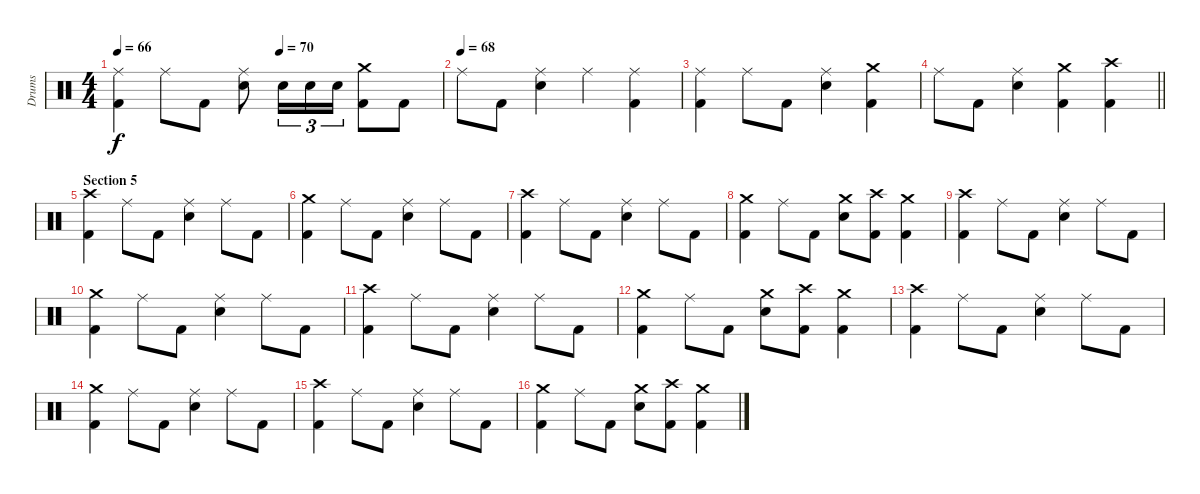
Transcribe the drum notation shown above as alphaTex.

\track ("Drums" "Drums") {instrument percussion}
\staff {score}
\articulation defaults
\ts (4 4)
\tempo 66
\tempo (70 0.5)
\clef neutral
\ks c
("Ride (middle)" "Kick (hit) 2").4{dy f} "Ride (middle)".8 "Kick (hit) 2".8 ("Ride (middle)" "Electric Snare (hit)").8 "Electric Snare (hit)".16{tu (3 2)} "Electric Snare (hit)".16{tu (3 2)} "Electric Snare (hit)".16{tu (3 2)} ("Crash medium (hit)" "Kick (hit) 2").8 "Kick (hit) 2".8 |
\tempo (68)
"Ride (middle)".8 "Kick (hit) 2".8 ("Ride (middle)" "Electric Snare (hit)").4 "Ride (middle)".4 ("Ride (middle)" "Kick (hit) 2").4 |
("Ride (middle)" "Kick (hit) 2").4 "Ride (middle)".8 "Kick (hit) 2".8 ("Ride (middle)" "Electric Snare (hit)").4 ("Crash medium (hit)" "Kick (hit) 2").4 |
\barLineRight lightlight "Ride (middle)".8 "Kick (hit) 2".8
("Ride (middle)" "Electric Snare (hit)").4 ("Crash medium (hit)" "Kick (hit) 2").4 ("Crash high (hit)" "Kick (hit) 2").4 |
\section ("" "Section 5")
("Crash high (hit)" "Kick (hit) 2").4 "Ride (middle)".8 "Kick (hit) 2".8 ("Ride (middle)" "Electric Snare (hit)").4 "Ride (middle)".8 "Kick (hit) 2".8 |
("Crash medium (hit)" "Kick (hit) 2").4 "Ride (middle)".8 "Kick (hit) 2".8 ("Ride (middle)" "Electric Snare (hit)").4 "Ride (middle)".8 "Kick (hit) 2".8 |
("Crash high (hit)" "Kick (hit) 2").4 "Ride (middle)".8 "Kick (hit) 2".8 ("Ride (middle)" "Electric Snare (hit)").4 "Ride (middle)".8 "Kick (hit) 2".8 |
("Crash medium (hit)" "Kick (hit) 2").4 "Ride (middle)".8 "Kick (hit) 2".8 ("Crash medium (hit)" "Electric Snare (hit)").8 ("Crash high (hit)" "Kick (hit) 2").8 ("Crash medium (hit)" "Kick (hit) 2").4 |
("Crash high (hit)" "Kick (hit) 2").4 "Ride (middle)".8 "Kick (hit) 2".8 ("Ride (middle)" "Electric Snare (hit)").4 "Ride (middle)".8 "Kick (hit) 2".8 |
("Crash medium (hit)" "Kick (hit) 2").4 "Ride (middle)".8 "Kick (hit) 2".8 ("Ride (middle)" "Electric Snare (hit)").4 "Ride (middle)".8 "Kick (hit) 2".8 |
("Crash high (hit)" "Kick (hit) 2").4 "Ride (middle)".8 "Kick (hit) 2".8 ("Ride (middle)" "Electric Snare (hit)").4 "Ride (middle)".8 "Kick (hit) 2".8 |
("Crash medium (hit)" "Kick (hit) 2").4 "Ride (middle)".8 "Kick (hit) 2".8 ("Crash medium (hit)" "Electric Snare (hit)").8 ("Crash high (hit)" "Kick (hit) 2").8 ("Crash medium (hit)" "Kick (hit) 2").4 |
("Crash high (hit)" "Kick (hit) 2").4 "Ride (middle)".8 "Kick (hit) 2".8 ("Ride (middle)" "Electric Snare (hit)").4 "Ride (middle)".8 "Kick (hit) 2".8 |
("Crash medium (hit)" "Kick (hit) 2").4 "Ride (middle)".8 "Kick (hit) 2".8 ("Ride (middle)" "Electric Snare (hit)").4 "Ride (middle)".8 "Kick (hit) 2".8 |
("Crash high (hit)" "Kick (hit) 2").4 "Ride (middle)".8 "Kick (hit) 2".8 ("Ride (middle)" "Electric Snare (hit)").4 "Ride (middle)".8 "Kick (hit) 2".8 |
("Crash medium (hit)" "Kick (hit) 2").4 "Ride (middle)".8 "Kick (hit) 2".8 ("Crash medium (hit)" "Electric Snare (hit)").8 ("Crash high (hit)" "Kick (hit) 2").8 ("Crash medium (hit)" "Kick (hit) 2").4
